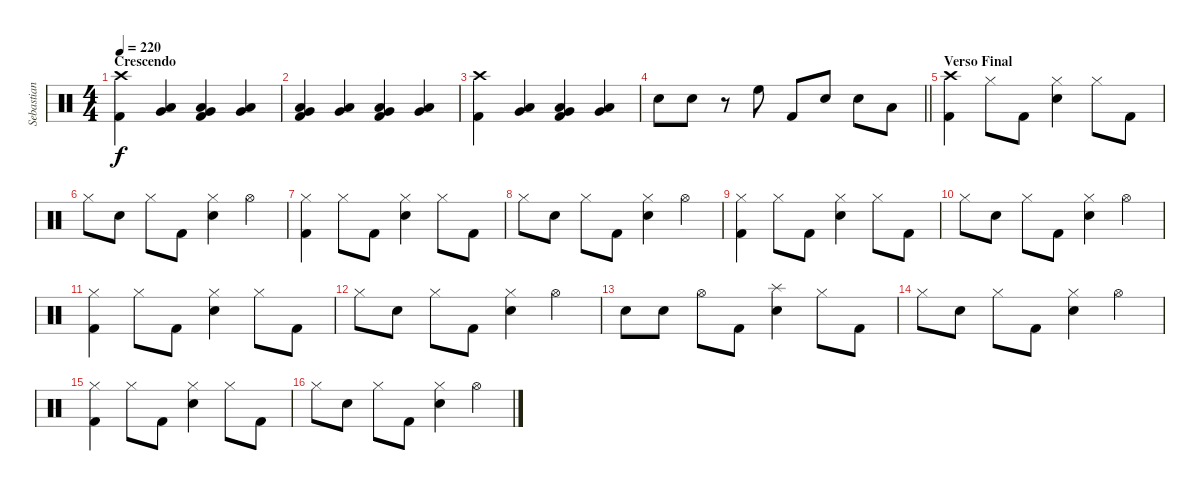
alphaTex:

\track ("Sebastian" "Sebastian") {instrument percussion}
\staff {score}
\articulation defaults
\ts (4 4)
\section ("" "Crescendo")
\tempo 220
\clef neutral
\ks c
("Crash high (hit)" "Kick (hit) 2").4{dy f} ("Low Tom (hit)" "Very Low Tom (hit)").4 ("Low Tom (hit)" "Very Low Tom (hit)" "Kick (hit) 2").4 ("Low Tom (hit)" "Very Low Tom (hit)").4 |
("Low Tom (hit)" "Very Low Tom (hit)" "Kick (hit) 2").4 ("Low Tom (hit)" "Very Low Tom (hit)").4 ("Low Tom (hit)" "Very Low Tom (hit)" "Kick (hit) 2").4 ("Low Tom (hit)" "Very Low Tom (hit)").4 |
("Crash high (hit)" "Kick (hit) 2").4 ("Low Tom (hit)" "Very Low Tom (hit)").4 ("Low Tom (hit)" "Very Low Tom (hit)" "Kick (hit) 2").4 ("Low Tom (hit)" "Very Low Tom (hit)").4 |
\barLineRight lightlight "Snare (hit) 2".8 "Snare (hit) 2".8
r.8 "High Floor Tom (hit)".8 "Kick (hit) 2".8 "Snare (hit) 2".8 "Snare (hit) 2".8 "Low Tom (hit)".8 |
\section ("" "Verso Final")
("Crash high (hit)" "Kick (hit) 2").4 "Hi-Hat (closed)".8 "Kick (hit) 2".8 ("Hi-Hat (closed)" "Snare (hit) 2").4 "Hi-Hat (closed)".8 "Kick (hit) 2".8 |
"Hi-Hat (closed)".8 "Snare (hit) 2".8 "Hi-Hat (closed)".8 "Kick (hit) 2".8 ("Hi-Hat (closed)" "Snare (hit) 2").4 "Hi-Hat (open)".4 |
("Hi-Hat (closed)" "Kick (hit) 2").4 "Hi-Hat (closed)".8 "Kick (hit) 2".8 ("Hi-Hat (closed)" "Snare (hit) 2").4 "Hi-Hat (closed)".8 "Kick (hit) 2".8 |
"Hi-Hat (closed)".8 "Snare (hit) 2".8 "Hi-Hat (closed)".8 "Kick (hit) 2".8 ("Hi-Hat (closed)" "Snare (hit) 2").4 "Hi-Hat (open)".4 |
("Hi-Hat (closed)" "Kick (hit) 2").4 "Hi-Hat (closed)".8 "Kick (hit) 2".8 ("Hi-Hat (closed)" "Snare (hit) 2").4 "Hi-Hat (closed)".8 "Kick (hit) 2".8 |
"Hi-Hat (closed)".8 "Snare (hit) 2".8 "Hi-Hat (closed)".8 "Kick (hit) 2".8 ("Hi-Hat (closed)" "Snare (hit) 2").4 "Hi-Hat (open)".4 |
("Hi-Hat (closed)" "Kick (hit) 2").4 "Hi-Hat (closed)".8 "Kick (hit) 2".8 ("Hi-Hat (closed)" "Snare (hit) 2").4 "Hi-Hat (closed)".8 "Kick (hit) 2".8 |
"Hi-Hat (closed)".8 "Snare (hit) 2".8 "Hi-Hat (closed)".8 "Kick (hit) 2".8 ("Hi-Hat (closed)" "Snare (hit) 2").4 "Hi-Hat (open)".4 |
"Snare (hit) 2".8 "Snare (hit) 2".8 "Hi-Hat (open)".8 "Kick (hit) 2".8 ("Splash (hit)" "Snare (hit) 2").4 "Hi-Hat (closed)".8 "Kick (hit) 2".8 |
"Hi-Hat (closed)".8 "Snare (hit) 2".8 "Hi-Hat (closed)".8 "Kick (hit) 2".8 ("Hi-Hat (closed)" "Snare (hit) 2").4 "Hi-Hat (open)".4 |
("Hi-Hat (closed)" "Kick (hit) 2").4 "Hi-Hat (closed)".8 "Kick (hit) 2".8 ("Hi-Hat (closed)" "Snare (hit) 2").4 "Hi-Hat (closed)".8 "Kick (hit) 2".8 |
"Hi-Hat (closed)".8 "Snare (hit) 2".8 "Hi-Hat (closed)".8 "Kick (hit) 2".8 ("Hi-Hat (closed)" "Snare (hit) 2").4 "Hi-Hat (open)".4
